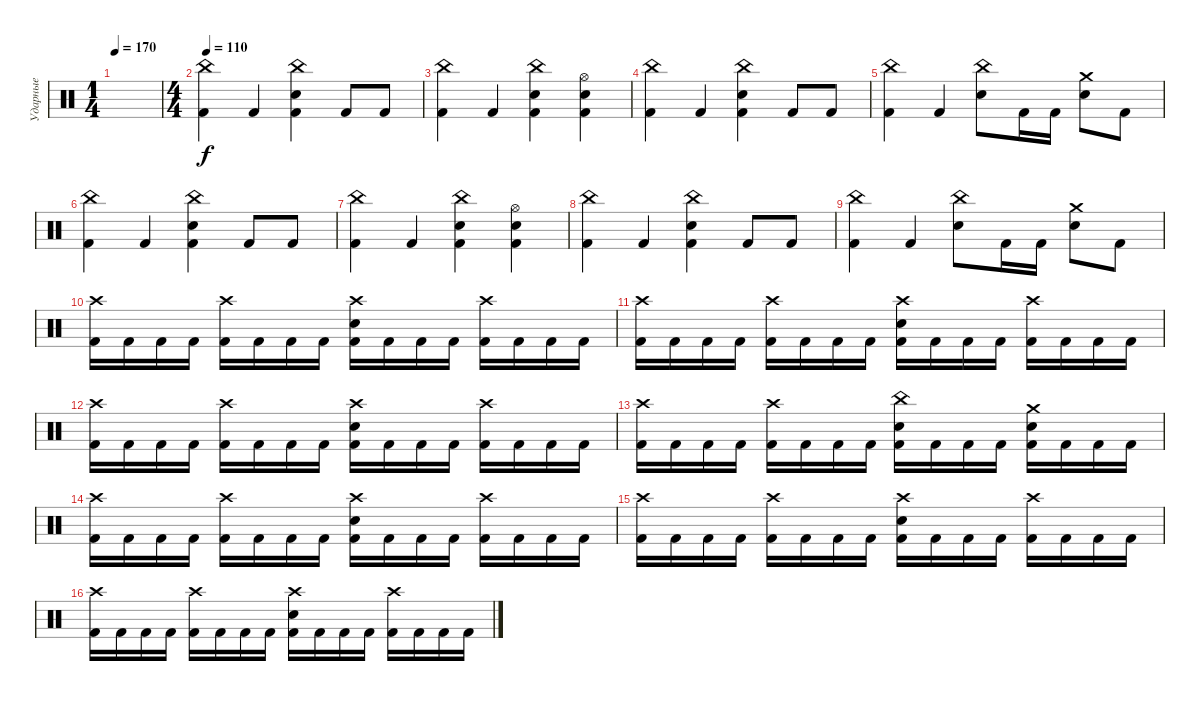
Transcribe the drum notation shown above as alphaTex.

\track ("Ударные" "Ударные") {instrument percussion}
\staff {score}
\articulation defaults
\ts (1 4)
\tempo 170
\clef neutral
\ks c
|
\ts (4 4)
\tempo 110
("China (hit)" "Kick (hit) 2").4 "Kick (hit) 2".4 ("China (hit)" "Snare (hit) 2" "Kick (hit) 2").4 "Kick (hit) 2".8 "Kick (hit) 2".8 |
("China (hit)" "Kick (hit) 2").4 "Kick (hit) 2".4 ("China (hit)" "Snare (hit) 2" "Kick (hit) 2").4 ("Hi-Hat (open)" "Snare (hit) 2" "Kick (hit) 2").4 |
("China (hit)" "Kick (hit) 2").4 "Kick (hit) 2".4 ("China (hit)" "Snare (hit) 2" "Kick (hit) 2").4 "Kick (hit) 2".8 "Kick (hit) 2".8 |
("China (hit)" "Kick (hit) 2").4 "Kick (hit) 2".4 ("China (hit)" "Snare (hit) 2").8 "Kick (hit) 2".16 "Kick (hit) 2".16 ("Crash medium (hit)" "Snare (hit) 2").8 "Kick (hit) 2".8 |
("China (hit)" "Kick (hit) 2").4 "Kick (hit) 2".4 ("China (hit)" "Snare (hit) 2" "Kick (hit) 2").4 "Kick (hit) 2".8 "Kick (hit) 2".8 |
("China (hit)" "Kick (hit) 2").4 "Kick (hit) 2".4 ("China (hit)" "Snare (hit) 2" "Kick (hit) 2").4 ("Hi-Hat (open)" "Snare (hit) 2" "Kick (hit) 2").4 |
("China (hit)" "Kick (hit) 2").4 "Kick (hit) 2".4 ("China (hit)" "Snare (hit) 2" "Kick (hit) 2").4 "Kick (hit) 2".8 "Kick (hit) 2".8 |
("China (hit)" "Kick (hit) 2").4 "Kick (hit) 2".4 ("China (hit)" "Snare (hit) 2").8 "Kick (hit) 2".16 "Kick (hit) 2".16 ("Crash medium (hit)" "Snare (hit) 2").8 "Kick (hit) 2".8 |
("Crash high (hit)" "Kick (hit) 2").16 "Kick (hit) 2".16 "Kick (hit) 2".16 "Kick (hit) 2".16 ("Crash high (hit)" "Kick (hit) 2").16 "Kick (hit) 2".16 "Kick (hit) 2".16 "Kick (hit) 2".16 ("Crash high (hit)" "Snare (hit) 2" "Kick (hit) 2").16 "Kick (hit) 2".16 "Kick (hit) 2".16 "Kick (hit) 2".16 ("Crash high (hit)" "Kick (hit) 2").16 "Kick (hit) 2".16 "Kick (hit) 2".16 "Kick (hit) 2".16 |
("Crash high (hit)" "Kick (hit) 2").16 "Kick (hit) 2".16 "Kick (hit) 2".16 "Kick (hit) 2".16 ("Crash high (hit)" "Kick (hit) 2").16 "Kick (hit) 2".16 "Kick (hit) 2".16 "Kick (hit) 2".16 ("Crash high (hit)" "Snare (hit) 2" "Kick (hit) 2").16 "Kick (hit) 2".16 "Kick (hit) 2".16 "Kick (hit) 2".16 ("Crash high (hit)" "Kick (hit) 2").16 "Kick (hit) 2".16 "Kick (hit) 2".16 "Kick (hit) 2".16 |
("Crash high (hit)" "Kick (hit) 2").16 "Kick (hit) 2".16 "Kick (hit) 2".16 "Kick (hit) 2".16 ("Crash high (hit)" "Kick (hit) 2").16 "Kick (hit) 2".16 "Kick (hit) 2".16 "Kick (hit) 2".16 ("Crash high (hit)" "Snare (hit) 2" "Kick (hit) 2").16 "Kick (hit) 2".16 "Kick (hit) 2".16 "Kick (hit) 2".16 ("Crash high (hit)" "Kick (hit) 2").16 "Kick (hit) 2".16 "Kick (hit) 2".16 "Kick (hit) 2".16 |
("Crash high (hit)" "Kick (hit) 2").16 "Kick (hit) 2".16 "Kick (hit) 2".16 "Kick (hit) 2".16 ("Crash high (hit)" "Kick (hit) 2").16 "Kick (hit) 2".16 "Kick (hit) 2".16 "Kick (hit) 2".16 ("China (hit)" "Snare (hit) 2" "Kick (hit) 2").16 "Kick (hit) 2".16 "Kick (hit) 2".16 "Kick (hit) 2".16 ("Crash medium (hit)" "Snare (hit) 2" "Kick (hit) 2").16 "Kick (hit) 2".16 "Kick (hit) 2".16 "Kick (hit) 2".16 |
("Crash high (hit)" "Kick (hit) 2").16 "Kick (hit) 2".16 "Kick (hit) 2".16 "Kick (hit) 2".16 ("Crash high (hit)" "Kick (hit) 2").16 "Kick (hit) 2".16 "Kick (hit) 2".16 "Kick (hit) 2".16 ("Crash high (hit)" "Snare (hit) 2" "Kick (hit) 2").16 "Kick (hit) 2".16 "Kick (hit) 2".16 "Kick (hit) 2".16 ("Crash high (hit)" "Kick (hit) 2").16 "Kick (hit) 2".16 "Kick (hit) 2".16 "Kick (hit) 2".16 |
("Crash high (hit)" "Kick (hit) 2").16 "Kick (hit) 2".16 "Kick (hit) 2".16 "Kick (hit) 2".16 ("Crash high (hit)" "Kick (hit) 2").16 "Kick (hit) 2".16 "Kick (hit) 2".16 "Kick (hit) 2".16 ("Crash high (hit)" "Snare (hit) 2" "Kick (hit) 2").16 "Kick (hit) 2".16 "Kick (hit) 2".16 "Kick (hit) 2".16 ("Crash high (hit)" "Kick (hit) 2").16 "Kick (hit) 2".16 "Kick (hit) 2".16 "Kick (hit) 2".16 |
("Crash high (hit)" "Kick (hit) 2").16 "Kick (hit) 2".16 "Kick (hit) 2".16 "Kick (hit) 2".16 ("Crash high (hit)" "Kick (hit) 2").16 "Kick (hit) 2".16 "Kick (hit) 2".16 "Kick (hit) 2".16 ("Crash high (hit)" "Snare (hit) 2" "Kick (hit) 2").16 "Kick (hit) 2".16 "Kick (hit) 2".16 "Kick (hit) 2".16 ("Crash high (hit)" "Kick (hit) 2").16 "Kick (hit) 2".16 "Kick (hit) 2".16 "Kick (hit) 2".16
